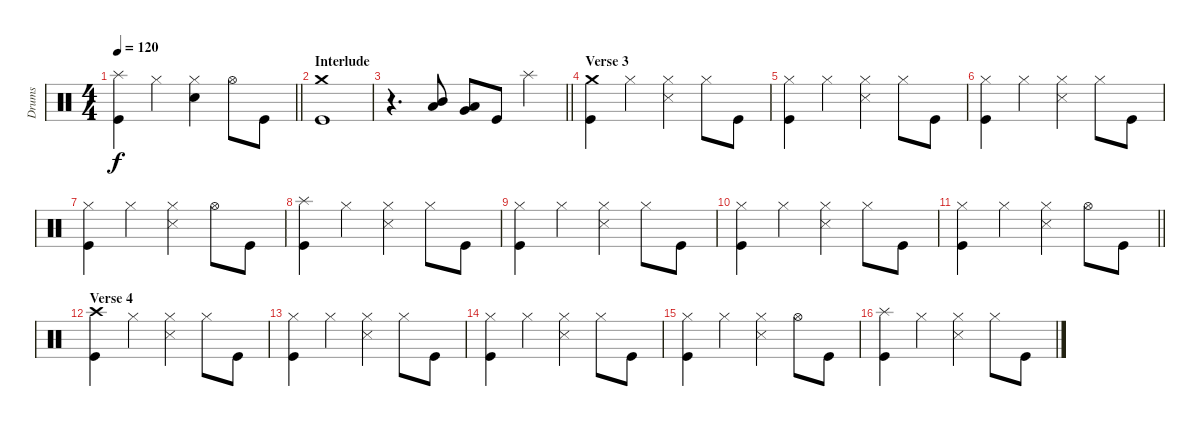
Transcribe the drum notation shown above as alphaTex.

\track ("Drums" "Drums") {instrument percussion}
\staff {score}
\articulation defaults
\ts (4 4)
\tempo 120
\clef neutral
\barLineRight lightlight
\ks c
("Kick (hit)" "Splash (hit)").4{dy f} "Hi-Hat (closed)".4 ("Snare (hit) 2" "Hi-Hat (closed)").4 "Hi-Hat (open)".8 "Kick (hit)".8 |
\section ("" "Interlude")
("Kick (hit)" "Crash medium (hit)").1 |
\barLineRight lightlight
r.4{d} ("Low Tom (hit)" "Mid Tom (hit)").8 ("Very Low Tom (hit)" "Low Tom (hit)").8 "Kick (hit)".8 "Splash (hit)".4 |
\section ("" "Verse 3")
("Kick (hit)" "Crash medium (hit)").4 "Hi-Hat (closed)".4 ("Snare (side stick) 3" "Hi-Hat (closed)").4 "Hi-Hat (closed)".8 "Kick (hit)".8 |
("Kick (hit)" "Hi-Hat (closed)").4 "Hi-Hat (closed)".4 ("Snare (side stick) 3" "Hi-Hat (closed)").4 "Hi-Hat (closed)".8 "Kick (hit)".8 |
("Kick (hit)" "Hi-Hat (closed)").4 "Hi-Hat (closed)".4 ("Snare (side stick) 3" "Hi-Hat (closed)").4 "Hi-Hat (closed)".8 "Kick (hit)".8 |
("Kick (hit)" "Hi-Hat (closed)").4 "Hi-Hat (closed)".4 ("Snare (side stick) 3" "Hi-Hat (closed)").4 "Hi-Hat (open)".8 "Kick (hit)".8 |
("Kick (hit)" "Splash (hit)").4 "Hi-Hat (closed)".4 ("Snare (side stick) 3" "Hi-Hat (closed)").4 "Hi-Hat (closed)".8 "Kick (hit)".8 |
("Kick (hit)" "Hi-Hat (closed)").4 "Hi-Hat (closed)".4 ("Snare (side stick) 3" "Hi-Hat (closed)").4 "Hi-Hat (closed)".8 "Kick (hit)".8 |
("Kick (hit)" "Hi-Hat (closed)").4 "Hi-Hat (closed)".4 ("Snare (side stick) 3" "Hi-Hat (closed)").4 "Hi-Hat (closed)".8 "Kick (hit)".8 |
\barLineRight lightlight
("Kick (hit)" "Hi-Hat (closed)").4 "Hi-Hat (closed)".4 ("Snare (side stick) 3" "Hi-Hat (closed)").4 "Hi-Hat (open)".8 "Kick (hit)".8 |
\section ("" "Verse 4")
("Kick (hit)" "Crash high (hit)").4 "Hi-Hat (closed)".4 ("Snare (side stick) 3" "Hi-Hat (closed)").4 "Hi-Hat (closed)".8 "Kick (hit)".8 |
("Kick (hit)" "Hi-Hat (closed)").4 "Hi-Hat (closed)".4 ("Snare (side stick) 3" "Hi-Hat (closed)").4 "Hi-Hat (closed)".8 "Kick (hit)".8 |
("Kick (hit)" "Hi-Hat (closed)").4 "Hi-Hat (closed)".4 ("Snare (side stick) 3" "Hi-Hat (closed)").4 "Hi-Hat (closed)".8 "Kick (hit)".8 |
("Kick (hit)" "Hi-Hat (closed)").4 "Hi-Hat (closed)".4 ("Snare (side stick) 3" "Hi-Hat (closed)").4 "Hi-Hat (open)".8 "Kick (hit)".8 |
("Kick (hit)" "Splash (hit)").4 "Hi-Hat (closed)".4 ("Snare (side stick) 3" "Hi-Hat (closed)").4 "Hi-Hat (closed)".8 "Kick (hit)".8
